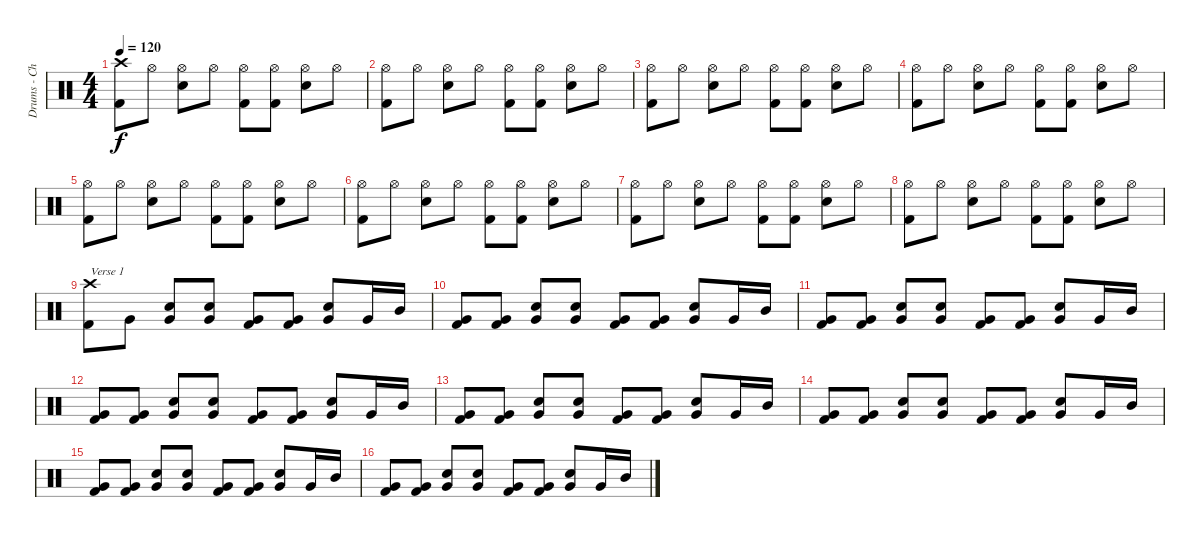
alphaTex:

\track ("Drums - Chris" "Drums - Ch") {instrument percussion}
\staff {score}
\articulation defaults
\ts (4 4)
\tempo 120
\clef neutral
\ks c
("Crash high (hit)" "Kick (hit) 2").8{dy f} "Hi-Hat (open)".8 ("Hi-Hat (open)" "Snare (hit) 2").8 "Hi-Hat (open)".8 ("Hi-Hat (open)" "Kick (hit) 2").8 ("Hi-Hat (open)" "Kick (hit) 2").8 ("Hi-Hat (open)" "Snare (hit) 2").8 "Hi-Hat (open)".8 |
("Hi-Hat (open)" "Kick (hit) 2").8 "Hi-Hat (open)".8 ("Hi-Hat (open)" "Snare (hit) 2").8 "Hi-Hat (open)".8 ("Hi-Hat (open)" "Kick (hit) 2").8 ("Hi-Hat (open)" "Kick (hit) 2").8 ("Hi-Hat (open)" "Snare (hit) 2").8 "Hi-Hat (open)".8 |
("Hi-Hat (open)" "Kick (hit) 2").8 "Hi-Hat (open)".8 ("Hi-Hat (open)" "Snare (hit) 2").8 "Hi-Hat (open)".8 ("Hi-Hat (open)" "Kick (hit) 2").8 ("Hi-Hat (open)" "Kick (hit) 2").8 ("Hi-Hat (open)" "Snare (hit) 2").8 "Hi-Hat (open)".8 |
("Hi-Hat (open)" "Kick (hit) 2").8 "Hi-Hat (open)".8 ("Hi-Hat (open)" "Snare (hit) 2").8 "Hi-Hat (open)".8 ("Hi-Hat (open)" "Kick (hit) 2").8 ("Hi-Hat (open)" "Kick (hit) 2").8 ("Hi-Hat (open)" "Snare (hit) 2").8 "Hi-Hat (open)".8 |
("Hi-Hat (open)" "Kick (hit) 2").8 "Hi-Hat (open)".8 ("Hi-Hat (open)" "Snare (hit) 2").8 "Hi-Hat (open)".8 ("Hi-Hat (open)" "Kick (hit) 2").8 ("Hi-Hat (open)" "Kick (hit) 2").8 ("Hi-Hat (open)" "Snare (hit) 2").8 "Hi-Hat (open)".8 |
("Hi-Hat (open)" "Kick (hit) 2").8 "Hi-Hat (open)".8 ("Hi-Hat (open)" "Snare (hit) 2").8 "Hi-Hat (open)".8 ("Hi-Hat (open)" "Kick (hit) 2").8 ("Hi-Hat (open)" "Kick (hit) 2").8 ("Hi-Hat (open)" "Snare (hit) 2").8 "Hi-Hat (open)".8 |
("Hi-Hat (open)" "Kick (hit) 2").8 "Hi-Hat (open)".8 ("Hi-Hat (open)" "Snare (hit) 2").8 "Hi-Hat (open)".8 ("Hi-Hat (open)" "Kick (hit) 2").8 ("Hi-Hat (open)" "Kick (hit) 2").8 ("Hi-Hat (open)" "Snare (hit) 2").8 "Hi-Hat (open)".8 |
("Hi-Hat (open)" "Kick (hit) 2").8 "Hi-Hat (open)".8 ("Hi-Hat (open)" "Snare (hit) 2").8 "Hi-Hat (open)".8 ("Hi-Hat (open)" "Kick (hit) 2").8 ("Hi-Hat (open)" "Kick (hit) 2").8 ("Hi-Hat (open)" "Snare (hit) 2").8 "Hi-Hat (open)".8 |
("Crash high (hit)" "Kick (hit) 2").8{txt "Verse 1"} "Very Low Tom (hit)".8 ("Snare (hit) 2" "Very Low Tom (hit)").8 ("Snare (hit) 2" "Very Low Tom (hit)").8 ("Very Low Tom (hit)" "Kick (hit) 2").8 ("Very Low Tom (hit)" "Kick (hit) 2").8 ("Snare (hit) 2" "Very Low Tom (hit)").8 "Very Low Tom (hit)".16 "Mid Tom (hit)".16 |
("Very Low Tom (hit)" "Kick (hit) 2").8 ("Very Low Tom (hit)" "Kick (hit) 2").8 ("Snare (hit) 2" "Very Low Tom (hit)").8 ("Snare (hit) 2" "Very Low Tom (hit)").8 ("Very Low Tom (hit)" "Kick (hit) 2").8 ("Very Low Tom (hit)" "Kick (hit) 2").8 ("Snare (hit) 2" "Very Low Tom (hit)").8 "Very Low Tom (hit)".16 "Mid Tom (hit)".16 |
("Very Low Tom (hit)" "Kick (hit) 2").8 ("Very Low Tom (hit)" "Kick (hit) 2").8 ("Snare (hit) 2" "Very Low Tom (hit)").8 ("Snare (hit) 2" "Very Low Tom (hit)").8 ("Very Low Tom (hit)" "Kick (hit) 2").8 ("Very Low Tom (hit)" "Kick (hit) 2").8 ("Snare (hit) 2" "Very Low Tom (hit)").8 "Very Low Tom (hit)".16 "Mid Tom (hit)".16 |
("Very Low Tom (hit)" "Kick (hit) 2").8 ("Very Low Tom (hit)" "Kick (hit) 2").8 ("Snare (hit) 2" "Very Low Tom (hit)").8 ("Snare (hit) 2" "Very Low Tom (hit)").8 ("Very Low Tom (hit)" "Kick (hit) 2").8 ("Very Low Tom (hit)" "Kick (hit) 2").8 ("Snare (hit) 2" "Very Low Tom (hit)").8 "Very Low Tom (hit)".16 "Mid Tom (hit)".16 |
("Very Low Tom (hit)" "Kick (hit) 2").8 ("Very Low Tom (hit)" "Kick (hit) 2").8 ("Snare (hit) 2" "Very Low Tom (hit)").8 ("Snare (hit) 2" "Very Low Tom (hit)").8 ("Very Low Tom (hit)" "Kick (hit) 2").8 ("Very Low Tom (hit)" "Kick (hit) 2").8 ("Snare (hit) 2" "Very Low Tom (hit)").8 "Very Low Tom (hit)".16 "Mid Tom (hit)".16 |
("Very Low Tom (hit)" "Kick (hit) 2").8 ("Very Low Tom (hit)" "Kick (hit) 2").8 ("Snare (hit) 2" "Very Low Tom (hit)").8 ("Snare (hit) 2" "Very Low Tom (hit)").8 ("Very Low Tom (hit)" "Kick (hit) 2").8 ("Very Low Tom (hit)" "Kick (hit) 2").8 ("Snare (hit) 2" "Very Low Tom (hit)").8 "Very Low Tom (hit)".16 "Mid Tom (hit)".16 |
("Very Low Tom (hit)" "Kick (hit) 2").8 ("Very Low Tom (hit)" "Kick (hit) 2").8 ("Snare (hit) 2" "Very Low Tom (hit)").8 ("Snare (hit) 2" "Very Low Tom (hit)").8 ("Very Low Tom (hit)" "Kick (hit) 2").8 ("Very Low Tom (hit)" "Kick (hit) 2").8 ("Snare (hit) 2" "Very Low Tom (hit)").8 "Very Low Tom (hit)".16 "Mid Tom (hit)".16 |
("Very Low Tom (hit)" "Kick (hit) 2").8 ("Very Low Tom (hit)" "Kick (hit) 2").8 ("Snare (hit) 2" "Very Low Tom (hit)").8 ("Snare (hit) 2" "Very Low Tom (hit)").8 ("Very Low Tom (hit)" "Kick (hit) 2").8 ("Very Low Tom (hit)" "Kick (hit) 2").8 ("Snare (hit) 2" "Very Low Tom (hit)").8 "Very Low Tom (hit)".16 "Mid Tom (hit)".16
